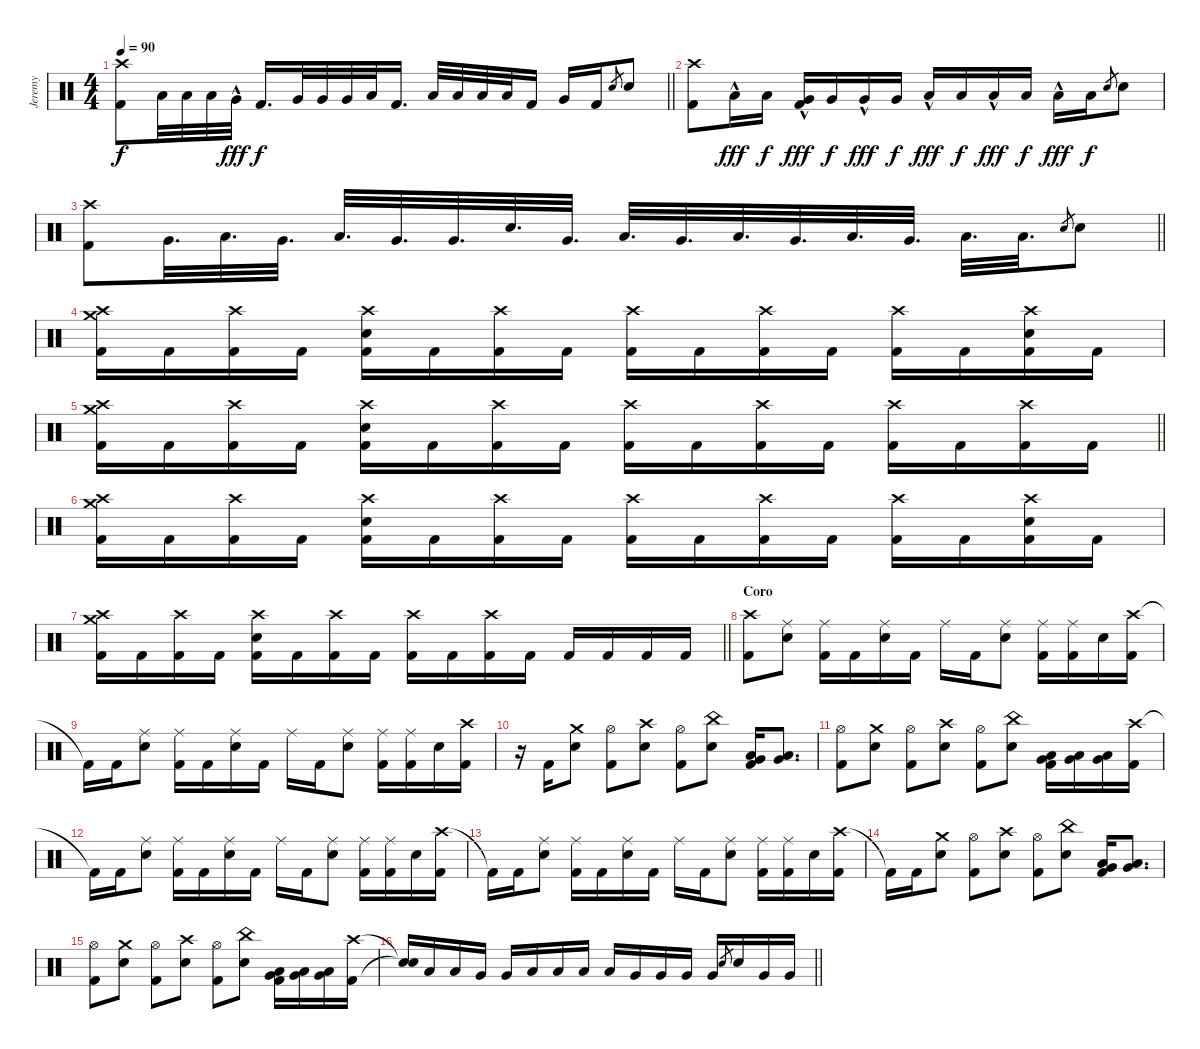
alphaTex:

\track ("Jeremy" "Jeremy") {instrument percussion}
\staff {score}
\articulation defaults
\ts (4 4)
\tempo 90
\clef neutral
\barLineRight lightlight
\ks c
("Crash high (hit)" "Kick (hit) 2").8{dy f} "Low Tom (hit)".32 "Low Tom (hit)".32 "Low Tom (hit)".32 "Very Low Tom (hit)"{hac}.32{dy fff} "Kick (hit) 2".16{d dy f} "Very Low Tom (hit)".32 "Very Low Tom (hit)".32 "Very Low Tom (hit)".32 "Low Floor Tom (hit)".32 "Kick (hit) 2".16{d} "Low Floor Tom (hit)".32 "Low Floor Tom (hit)".32 "Low Floor Tom (hit)".32 "Low Floor Tom (hit)".32 "Kick (hit) 2".16 "Very Low Tom (hit)".16 "Kick (hit) 2".16 "Snare (hit) 2".8{gr} "Snare (hit) 2".8 |
("Crash high (hit)" "Kick (hit) 2").8 "Low Tom (hit)"{hac}.16{dy fff} "Low Tom (hit)".16{dy f} ("Very Low Tom (hit)"{hac} "Kick (hit) 2").16{dy fff} "Very Low Tom (hit)".16{dy f} "Very Low Tom (hit)"{hac}.16{dy fff} "Very Low Tom (hit)".16{dy f} "Low Floor Tom (hit)"{hac}.16{dy fff} "Low Floor Tom (hit)".16{dy f} "Low Floor Tom (hit)"{hac}.16{dy fff} "Low Floor Tom (hit)".16{dy f} "Low Floor Tom (hit)"{hac}.16{dy fff} "Low Floor Tom (hit)".16{dy f} "Snare (hit) 2".8{gr} "Snare (hit) 2".8 |
\barLineRight lightlight
("Crash high (hit)" "Kick (hit) 2").8 "Very Low Tom (hit)".32{d} "Low Tom (hit)".32{d} "Very Low Tom (hit)".32{d} "Low Tom (hit)".32{d} "Very Low Tom (hit)".32{d} "Very Low Tom (hit)".32{d} "Snare (hit) 2".32{d} "Very Low Tom (hit)".32{d} "Low Floor Tom (hit)".32{d} "Very Low Tom (hit)".32{d} "Low Floor Tom (hit)".32{d} "Very Low Tom (hit)".32{d} "Low Floor Tom (hit)".32{d} "Very Low Tom (hit)".32{d} "Low Floor Tom (hit)".32{d} "Low Floor Tom (hit)".32{d} "Snare (hit) 2".8{gr} "Snare (hit) 2".8 |
("Crash high (hit)" "Crash medium (hit)" "Kick (hit) 2").16 "Kick (hit) 2".16 ("Crash high (hit)" "Kick (hit) 2").16 "Kick (hit) 2".16 ("Crash high (hit)" "Snare (hit) 2" "Kick (hit) 2").16 "Kick (hit) 2".16 ("Crash high (hit)" "Kick (hit) 2").16 "Kick (hit) 2".16 ("Crash high (hit)" "Kick (hit) 2").16 "Kick (hit) 2".16 ("Crash high (hit)" "Kick (hit) 2").16 "Kick (hit) 2".16 ("Crash high (hit)" "Kick (hit) 2").16 "Kick (hit) 2".16 ("Crash high (hit)" "Snare (hit) 2" "Kick (hit) 2").16 "Kick (hit) 2".16 |
\barLineRight lightlight
("Crash high (hit)" "Crash medium (hit)" "Kick (hit) 2").16 "Kick (hit) 2".16 ("Crash high (hit)" "Kick (hit) 2").16 "Kick (hit) 2".16 ("Crash high (hit)" "Snare (hit) 2" "Kick (hit) 2").16 "Kick (hit) 2".16 ("Crash high (hit)" "Kick (hit) 2").16 "Kick (hit) 2".16 ("Crash high (hit)" "Kick (hit) 2").16 "Kick (hit) 2".16 ("Crash high (hit)" "Kick (hit) 2").16 "Kick (hit) 2".16 ("Crash high (hit)" "Kick (hit) 2").16 "Kick (hit) 2".16 ("Crash high (hit)" "Kick (hit) 2").16 "Kick (hit) 2".16 |
("Crash high (hit)" "Crash medium (hit)" "Kick (hit) 2").16 "Kick (hit) 2".16 ("Crash high (hit)" "Kick (hit) 2").16 "Kick (hit) 2".16 ("Crash high (hit)" "Snare (hit) 2" "Kick (hit) 2").16 "Kick (hit) 2".16 ("Crash high (hit)" "Kick (hit) 2").16 "Kick (hit) 2".16 ("Crash high (hit)" "Kick (hit) 2").16 "Kick (hit) 2".16 ("Crash high (hit)" "Kick (hit) 2").16 "Kick (hit) 2".16 ("Crash high (hit)" "Kick (hit) 2").16 "Kick (hit) 2".16 ("Crash high (hit)" "Snare (hit) 2" "Kick (hit) 2").16 "Kick (hit) 2".16 |
\barLineRight lightlight
("Crash high (hit)" "Crash medium (hit)" "Kick (hit) 2").16 "Kick (hit) 2".16 ("Crash high (hit)" "Kick (hit) 2").16 "Kick (hit) 2".16 ("Crash high (hit)" "Snare (hit) 2" "Kick (hit) 2").16 "Kick (hit) 2".16 ("Crash high (hit)" "Kick (hit) 2").16 "Kick (hit) 2".16 ("Crash high (hit)" "Kick (hit) 2").16 "Kick (hit) 2".16 ("Crash high (hit)" "Kick (hit) 2").16 "Kick (hit) 2".16 "Kick (hit) 2".16 "Kick (hit) 2".16 "Kick (hit) 2".16 "Kick (hit) 2".16 |
\section ("" "Coro")
("Crash high (hit)" "Kick (hit) 2").8 ("Ride (middle)" "Snare (hit) 2").8 ("Ride (middle)" "Kick (hit) 2").16 "Kick (hit) 2".16 ("Ride (middle)" "Snare (hit) 2").16 "Kick (hit) 2".16 "Ride (middle)".16 "Kick (hit) 2".16 ("Ride (middle)" "Snare (hit) 2").8 ("Ride (middle)" "Kick (hit) 2").16 ("Ride (middle)" "Kick (hit) 2").16 "Snare (hit) 2".16 ("Crash high (hit)" "Kick (hit) 2").16 |
"Kick (hit) 2"{t}.16 "Kick (hit) 2".16 ("Ride (middle)" "Snare (hit) 2").8 ("Ride (middle)" "Kick (hit) 2").16 "Kick (hit) 2".16 ("Ride (middle)" "Snare (hit) 2").16 "Kick (hit) 2".16 "Ride (middle)".16 "Kick (hit) 2".16 ("Ride (middle)" "Snare (hit) 2").8 ("Ride (middle)" "Kick (hit) 2").16 ("Ride (middle)" "Kick (hit) 2").16 "Snare (hit) 2".16 ("Crash high (hit)" "Kick (hit) 2").16 |
r.16 "Kick (hit) 2".16 ("Crash medium (hit)" "Snare (hit) 2").8 ("Hi-Hat (open)" "Kick (hit) 2").8 ("Crash high (hit)" "Snare (hit) 2").8 ("Hi-Hat (open)" "Kick (hit) 2").8 ("China (hit)" "Snare (hit) 2").8 ("Very Low Tom (hit)" "Low Floor Tom (hit)" "Kick (hit) 2").16 ("Very Low Tom (hit)" "Low Floor Tom (hit)").8{d} |
("Hi-Hat (open)" "Kick (hit) 2").8 ("Crash medium (hit)" "Snare (hit) 2").8 ("Hi-Hat (open)" "Kick (hit) 2").8 ("Crash high (hit)" "Snare (hit) 2").8 ("Hi-Hat (open)" "Kick (hit) 2").8 ("China (hit)" "Snare (hit) 2").8 ("Very Low Tom (hit)" "Low Floor Tom (hit)" "Kick (hit) 2").16 ("Very Low Tom (hit)" "Low Floor Tom (hit)").16 ("Very Low Tom (hit)" "Low Floor Tom (hit)").16 ("Crash high (hit)" "Kick (hit) 2").16 |
"Kick (hit) 2"{t}.16 "Kick (hit) 2".16 ("Ride (middle)" "Snare (hit) 2").8 ("Ride (middle)" "Kick (hit) 2").16 "Kick (hit) 2".16 ("Ride (middle)" "Snare (hit) 2").16 "Kick (hit) 2".16 "Ride (middle)".16 "Kick (hit) 2".16 ("Ride (middle)" "Snare (hit) 2").8 ("Ride (middle)" "Kick (hit) 2").16 ("Ride (middle)" "Kick (hit) 2").16 "Snare (hit) 2".16 ("Crash high (hit)" "Kick (hit) 2").16 |
"Kick (hit) 2"{t}.16 "Kick (hit) 2".16 ("Ride (middle)" "Snare (hit) 2").8 ("Ride (middle)" "Kick (hit) 2").16 "Kick (hit) 2".16 ("Ride (middle)" "Snare (hit) 2").16 "Kick (hit) 2".16 "Ride (middle)".16 "Kick (hit) 2".16 ("Ride (middle)" "Snare (hit) 2").8 ("Ride (middle)" "Kick (hit) 2").16 ("Ride (middle)" "Kick (hit) 2").16 "Snare (hit) 2".16 ("Crash high (hit)" "Kick (hit) 2").16 |
"Kick (hit) 2"{t}.16 "Kick (hit) 2".16 ("Crash medium (hit)" "Snare (hit) 2").8 ("Hi-Hat (open)" "Kick (hit) 2").8 ("Crash high (hit)" "Snare (hit) 2").8 ("Hi-Hat (open)" "Kick (hit) 2").8 ("China (hit)" "Snare (hit) 2").8 ("Very Low Tom (hit)" "Low Floor Tom (hit)" "Kick (hit) 2").16 ("Very Low Tom (hit)" "Low Floor Tom (hit)").8{d} |
("Hi-Hat (open)" "Kick (hit) 2").8 ("Crash medium (hit)" "Snare (hit) 2").8 ("Hi-Hat (open)" "Kick (hit) 2").8 ("Crash high (hit)" "Snare (hit) 2").8 ("Hi-Hat (open)" "Kick (hit) 2").8 ("China (hit)" "Snare (hit) 2").8 ("Very Low Tom (hit)" "Low Floor Tom (hit)" "Kick (hit) 2").16 ("Very Low Tom (hit)" "Low Floor Tom (hit)").16 ("Very Low Tom (hit)" "Low Floor Tom (hit)").16 ("Crash high (hit)" "Kick (hit) 2").16 |
\barLineRight lightlight
("Snare (hit)"{t} "Snare (hit)"{t}).16 "Low Tom (hit)".16 "Low Tom (hit)".16 "Very Low Tom (hit)".16 "Very Low Tom (hit)".16 "Low Floor Tom (hit)".16 "Low Floor Tom (hit)".16 "Low Floor Tom (hit)".16 "Low Floor Tom (hit)".16 "Very Low Tom (hit)".16 "Very Low Tom (hit)".16 "Very Low Tom (hit)".16 "Very Low Tom (hit)".16 "Snare (hit) 2".8{gr} "Snare (hit) 2".16 "Very Low Tom (hit)".16 "Very Low Tom (hit)".16
